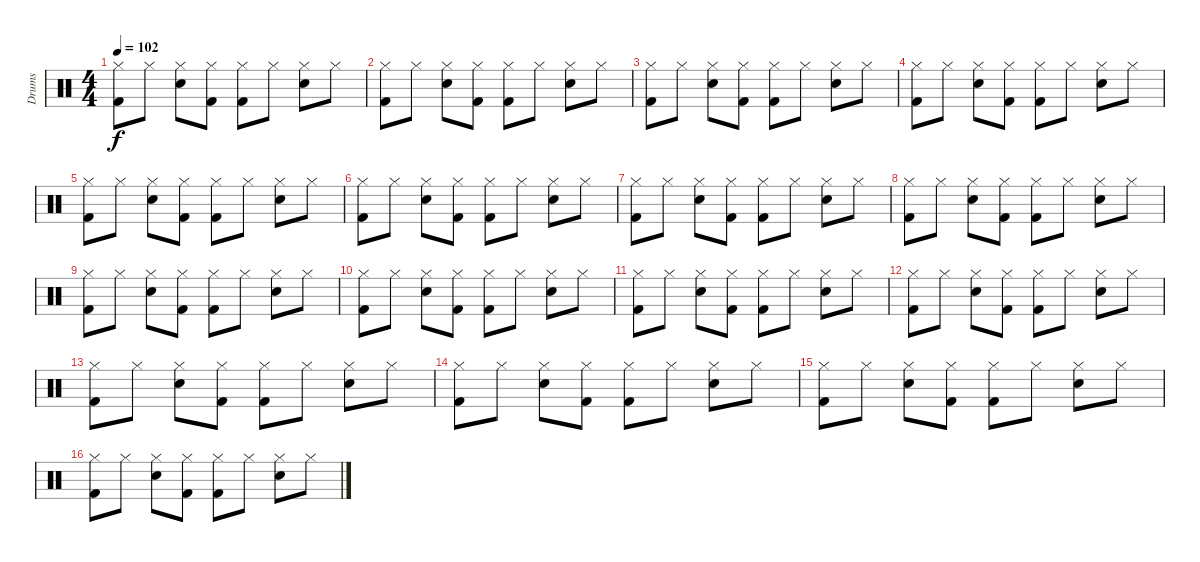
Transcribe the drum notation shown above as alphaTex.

\track ("Drums" "Drums") {instrument percussion}
\staff {score}
\articulation defaults
\ts (4 4)
\tempo 102
\clef neutral
\ks c
("Hi-Hat (closed)" "Kick (hit) 2").8{dy f} "Hi-Hat (closed)".8 ("Hi-Hat (closed)" "Snare (hit) 2").8 ("Hi-Hat (closed)" "Kick (hit) 2").8 ("Hi-Hat (closed)" "Kick (hit) 2").8 "Hi-Hat (closed)".8 ("Hi-Hat (closed)" "Snare (hit) 2").8 "Hi-Hat (closed)".8 |
("Hi-Hat (closed)" "Kick (hit) 2").8 "Hi-Hat (closed)".8 ("Hi-Hat (closed)" "Snare (hit) 2").8 ("Hi-Hat (closed)" "Kick (hit) 2").8 ("Hi-Hat (closed)" "Kick (hit) 2").8 "Hi-Hat (closed)".8 ("Hi-Hat (closed)" "Snare (hit) 2").8 "Hi-Hat (closed)".8 |
("Hi-Hat (closed)" "Kick (hit) 2").8 "Hi-Hat (closed)".8 ("Hi-Hat (closed)" "Snare (hit) 2").8 ("Hi-Hat (closed)" "Kick (hit) 2").8 ("Hi-Hat (closed)" "Kick (hit) 2").8 "Hi-Hat (closed)".8 ("Hi-Hat (closed)" "Snare (hit) 2").8 "Hi-Hat (closed)".8 |
("Hi-Hat (closed)" "Kick (hit) 2").8 "Hi-Hat (closed)".8 ("Hi-Hat (closed)" "Snare (hit) 2").8 ("Hi-Hat (closed)" "Kick (hit) 2").8 ("Hi-Hat (closed)" "Kick (hit) 2").8 "Hi-Hat (closed)".8 ("Hi-Hat (closed)" "Snare (hit) 2").8 "Hi-Hat (closed)".8 |
("Hi-Hat (closed)" "Kick (hit) 2").8 "Hi-Hat (closed)".8 ("Hi-Hat (closed)" "Snare (hit) 2").8 ("Hi-Hat (closed)" "Kick (hit) 2").8 ("Hi-Hat (closed)" "Kick (hit) 2").8 "Hi-Hat (closed)".8 ("Hi-Hat (closed)" "Snare (hit) 2").8 "Hi-Hat (closed)".8 |
("Hi-Hat (closed)" "Kick (hit) 2").8 "Hi-Hat (closed)".8 ("Hi-Hat (closed)" "Snare (hit) 2").8 ("Hi-Hat (closed)" "Kick (hit) 2").8 ("Hi-Hat (closed)" "Kick (hit) 2").8 "Hi-Hat (closed)".8 ("Hi-Hat (closed)" "Snare (hit) 2").8 "Hi-Hat (closed)".8 |
("Hi-Hat (closed)" "Kick (hit) 2").8 "Hi-Hat (closed)".8 ("Hi-Hat (closed)" "Snare (hit) 2").8 ("Hi-Hat (closed)" "Kick (hit) 2").8 ("Hi-Hat (closed)" "Kick (hit) 2").8 "Hi-Hat (closed)".8 ("Hi-Hat (closed)" "Snare (hit) 2").8 "Hi-Hat (closed)".8 |
("Hi-Hat (closed)" "Kick (hit) 2").8 "Hi-Hat (closed)".8 ("Hi-Hat (closed)" "Snare (hit) 2").8 ("Hi-Hat (closed)" "Kick (hit) 2").8 ("Hi-Hat (closed)" "Kick (hit) 2").8 "Hi-Hat (closed)".8 ("Hi-Hat (closed)" "Snare (hit) 2").8 "Hi-Hat (closed)".8 |
("Hi-Hat (closed)" "Kick (hit) 2").8 "Hi-Hat (closed)".8 ("Hi-Hat (closed)" "Snare (hit) 2").8 ("Hi-Hat (closed)" "Kick (hit) 2").8 ("Hi-Hat (closed)" "Kick (hit) 2").8 "Hi-Hat (closed)".8 ("Hi-Hat (closed)" "Snare (hit) 2").8 "Hi-Hat (closed)".8 |
("Hi-Hat (closed)" "Kick (hit) 2").8 "Hi-Hat (closed)".8 ("Hi-Hat (closed)" "Snare (hit) 2").8 ("Hi-Hat (closed)" "Kick (hit) 2").8 ("Hi-Hat (closed)" "Kick (hit) 2").8 "Hi-Hat (closed)".8 ("Hi-Hat (closed)" "Snare (hit) 2").8 "Hi-Hat (closed)".8 |
("Hi-Hat (closed)" "Kick (hit) 2").8 "Hi-Hat (closed)".8 ("Hi-Hat (closed)" "Snare (hit) 2").8 ("Hi-Hat (closed)" "Kick (hit) 2").8 ("Hi-Hat (closed)" "Kick (hit) 2").8 "Hi-Hat (closed)".8 ("Hi-Hat (closed)" "Snare (hit) 2").8 "Hi-Hat (closed)".8 |
("Hi-Hat (closed)" "Kick (hit) 2").8 "Hi-Hat (closed)".8 ("Hi-Hat (closed)" "Snare (hit) 2").8 ("Hi-Hat (closed)" "Kick (hit) 2").8 ("Hi-Hat (closed)" "Kick (hit) 2").8 "Hi-Hat (closed)".8 ("Hi-Hat (closed)" "Snare (hit) 2").8 "Hi-Hat (closed)".8 |
("Hi-Hat (closed)" "Kick (hit) 2").8 "Hi-Hat (closed)".8 ("Hi-Hat (closed)" "Snare (hit) 2").8 ("Hi-Hat (closed)" "Kick (hit) 2").8 ("Hi-Hat (closed)" "Kick (hit) 2").8 "Hi-Hat (closed)".8 ("Hi-Hat (closed)" "Snare (hit) 2").8 "Hi-Hat (closed)".8 |
("Hi-Hat (closed)" "Kick (hit) 2").8 "Hi-Hat (closed)".8 ("Hi-Hat (closed)" "Snare (hit) 2").8 ("Hi-Hat (closed)" "Kick (hit) 2").8 ("Hi-Hat (closed)" "Kick (hit) 2").8 "Hi-Hat (closed)".8 ("Hi-Hat (closed)" "Snare (hit) 2").8 "Hi-Hat (closed)".8 |
("Hi-Hat (closed)" "Kick (hit) 2").8 "Hi-Hat (closed)".8 ("Hi-Hat (closed)" "Snare (hit) 2").8 ("Hi-Hat (closed)" "Kick (hit) 2").8 ("Hi-Hat (closed)" "Kick (hit) 2").8 "Hi-Hat (closed)".8 ("Hi-Hat (closed)" "Snare (hit) 2").8 "Hi-Hat (closed)".8 |
("Hi-Hat (closed)" "Kick (hit) 2").8 "Hi-Hat (closed)".8 ("Hi-Hat (closed)" "Snare (hit) 2").8 ("Hi-Hat (closed)" "Kick (hit) 2").8 ("Hi-Hat (closed)" "Kick (hit) 2").8 "Hi-Hat (closed)".8 ("Hi-Hat (closed)" "Snare (hit) 2").8 "Hi-Hat (closed)".8
